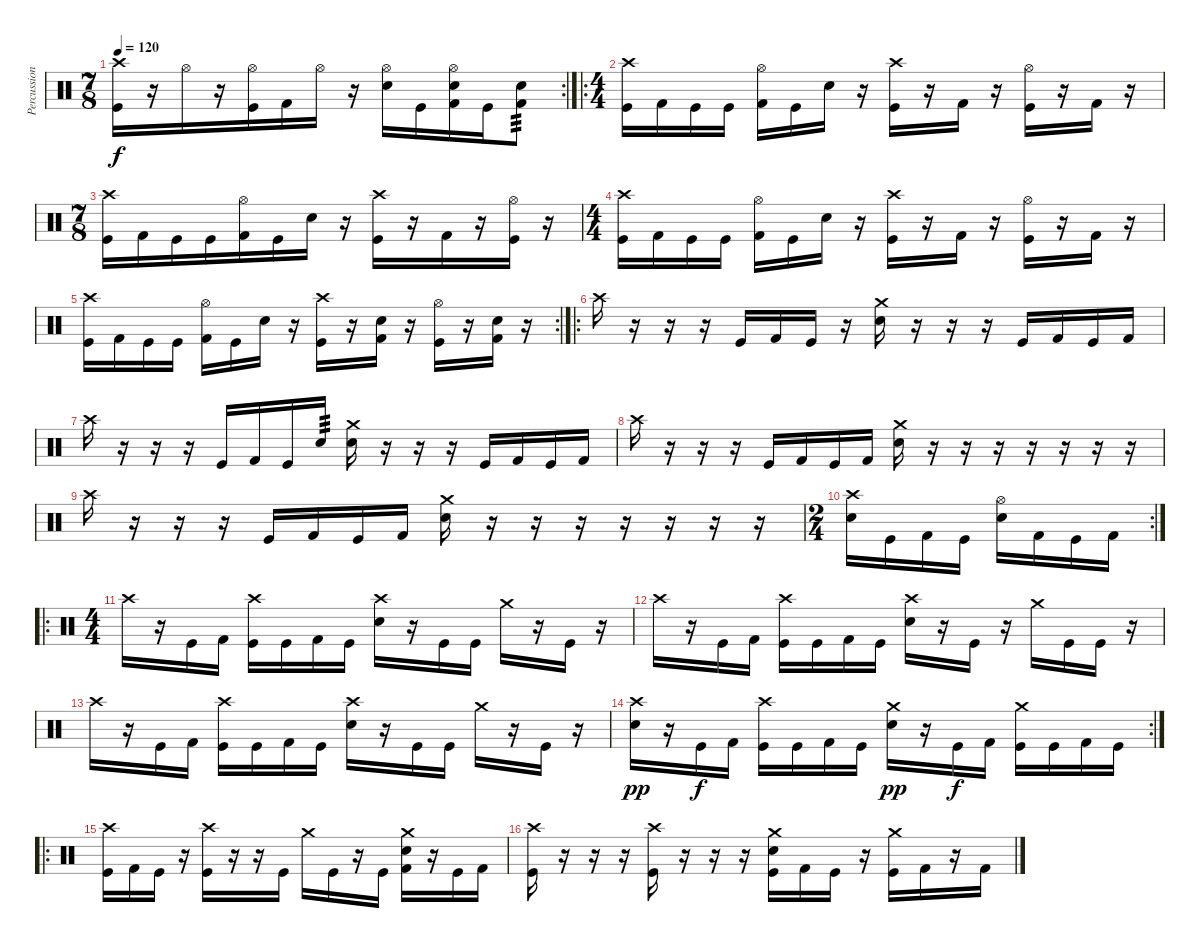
\track ("Percussion" "Percussion") {instrument percussion}
\staff {score}
\articulation defaults
\rc 2
\ts (7 8)
\tempo 120
\clef neutral
\ks c
("Crash high (hit)" "Kick (hit)").16{dy f} r.16 "Hi-Hat (open)".16 r.16 ("Hi-Hat (open)" "Kick (hit)").16 "Kick (hit) 2".16 "Hi-Hat (open)".16 r.16 ("Hi-Hat (open)" "Snare (hit) 2").16 "Kick (hit)".16 ("Hi-Hat (open)" "Snare (hit) 2" "Kick (hit) 2").16 "Kick (hit)".16 ("Snare (hit) 2" "Kick (hit) 2").8{tp 3} |
\ro
\ts (4 4)
("Crash high (hit)" "Kick (hit)").16 "Kick (hit) 2".16 "Kick (hit)".16 "Kick (hit)".16 ("Hi-Hat (open)" "Kick (hit) 2").16 "Kick (hit)".16 "Snare (hit) 2".16 r.16 ("Crash high (hit)" "Kick (hit)").16 r.16 "Kick (hit) 2".16 r.16 ("Hi-Hat (open)" "Kick (hit)").16 r.16 "Kick (hit) 2".16 r.16 |
\ts (7 8)
("Crash high (hit)" "Kick (hit)").16 "Kick (hit) 2".16 "Kick (hit)".16 "Kick (hit)".16 ("Hi-Hat (open)" "Kick (hit) 2").16 "Kick (hit)".16 "Snare (hit) 2".16 r.16 ("Crash high (hit)" "Kick (hit)").16 r.16 "Kick (hit) 2".16 r.16 ("Hi-Hat (open)" "Kick (hit)").16 r.16 |
\ts (4 4)
("Crash high (hit)" "Kick (hit)").16 "Kick (hit) 2".16 "Kick (hit)".16 "Kick (hit)".16 ("Hi-Hat (open)" "Kick (hit) 2").16 "Kick (hit)".16 "Snare (hit) 2".16 r.16 ("Crash high (hit)" "Kick (hit)").16 r.16 "Kick (hit) 2".16 r.16 ("Hi-Hat (open)" "Kick (hit)").16 r.16 "Kick (hit) 2".16 r.16 |
\rc 2
("Crash high (hit)" "Kick (hit)").16 "Kick (hit) 2".16 "Kick (hit)".16 "Kick (hit)".16 ("Hi-Hat (open)" "Kick (hit) 2").16 "Kick (hit)".16 "Snare (hit) 2".16 r.16 ("Crash high (hit)" "Kick (hit)").16 r.16 ("Snare (hit) 2" "Kick (hit) 2").16 r.16 ("Hi-Hat (open)" "Kick (hit)").16 r.16 ("Snare (hit) 2" "Kick (hit) 2").16 r.16 |
\ro "Crash high (hit)".16
r.16 r.16 r.16 "Kick (hit)".16 "Kick (hit) 2".16 "Kick (hit)".16 r.16 ("Crash medium (hit)" "Snare (hit) 2").16 r.16 r.16 r.16 "Kick (hit)".16 "Kick (hit) 2".16 "Kick (hit)".16 "Kick (hit) 2".16 |
"Crash high (hit)".16 r.16 r.16 r.16 "Kick (hit)".16 "Kick (hit) 2".16 "Kick (hit)".16 "Snare (hit) 2".16{tp 3} ("Crash medium (hit)" "Snare (hit) 2").16 r.16 r.16 r.16 "Kick (hit)".16 "Kick (hit) 2".16 "Kick (hit)".16 "Kick (hit) 2".16 |
"Crash high (hit)".16 r.16 r.16 r.16 "Kick (hit)".16 "Kick (hit) 2".16 "Kick (hit)".16 "Kick (hit) 2".16 ("Crash medium (hit)" "Snare (hit) 2").16 r.16 r.16 r.16 r.16 r.16 r.16 r.16 |
"Crash high (hit)".16 r.16 r.16 r.16 "Kick (hit)".16 "Kick (hit) 2".16 "Kick (hit)".16 "Kick (hit) 2".16 ("Crash medium (hit)" "Snare (hit) 2").16 r.16 r.16 r.16 r.16 r.16 r.16 r.16 |
\rc 2
\ts (2 4)
("Crash high (hit)" "Snare (hit) 2").16 "Kick (hit)".16 "Kick (hit) 2".16 "Kick (hit)".16 ("Hi-Hat (open)" "Snare (hit) 2").16 "Kick (hit) 2".16 "Kick (hit)".16 "Kick (hit) 2".16 |
\ro
\ts (4 4)
"Crash high (hit)".16 r.16 "Kick (hit)".16 "Kick (hit) 2".16 ("Crash high (hit)" "Kick (hit)").16 "Kick (hit)".16 "Kick (hit) 2".16 "Kick (hit)".16 ("Crash high (hit)" "Snare (hit) 2").16 r.16 "Kick (hit)".16 "Kick (hit)".16 "Crash medium (hit)".16 r.16 "Kick (hit)".16 r.16 |
"Crash high (hit)".16 r.16 "Kick (hit)".16 "Kick (hit) 2".16 ("Crash high (hit)" "Kick (hit)").16 "Kick (hit)".16 "Kick (hit) 2".16 "Kick (hit)".16 ("Crash high (hit)" "Snare (hit) 2").16 r.16 "Kick (hit)".16 r.16 "Crash medium (hit)".16 "Kick (hit)".16 "Kick (hit)".16 r.16 |
"Crash high (hit)".16 r.16 "Kick (hit)".16 "Kick (hit) 2".16 ("Crash high (hit)" "Kick (hit)").16 "Kick (hit)".16 "Kick (hit) 2".16 "Kick (hit)".16 ("Crash high (hit)" "Snare (hit) 2").16 r.16 "Kick (hit)".16 "Kick (hit)".16 "Crash medium (hit)".16 r.16 "Kick (hit)".16 r.16 |
\rc 2
("Crash high (hit)" "Snare (hit) 2").16{dy pp} r.16 "Kick (hit)".16{dy f} "Kick (hit) 2".16 ("Crash high (hit)" "Kick (hit)").16 "Kick (hit)".16 "Kick (hit) 2".16 "Kick (hit)".16 ("Crash medium (hit)" "Snare (hit) 2").16{dy pp} r.16 "Kick (hit)".16{dy f} "Kick (hit) 2".16 ("Crash medium (hit)" "Kick (hit)").16 "Kick (hit)".16 "Kick (hit) 2".16 "Kick (hit)".16 |
\ro
("Crash high (hit)" "Kick (hit)").16 "Kick (hit) 2".16 "Kick (hit)".16 r.16 ("Crash high (hit)" "Kick (hit)").16 r.16 r.16 "Kick (hit)".16 "Crash medium (hit)".16 "Kick (hit)".16 r.16 "Kick (hit)".16 ("Crash medium (hit)" "Snare (hit) 2" "Kick (hit) 2").16 r.16 "Kick (hit)".16 "Kick (hit) 2".16 |
("Crash high (hit)" "Kick (hit)").16 r.16 r.16 r.16 ("Crash high (hit)" "Kick (hit)").16 r.16 r.16 r.16 ("Crash medium (hit)" "Snare (hit) 2" "Kick (hit)").16 "Kick (hit) 2".16 "Kick (hit)".16 r.16 ("Crash medium (hit)" "Kick (hit)").16 "Kick (hit) 2".16 r.16 "Kick (hit) 2".16
